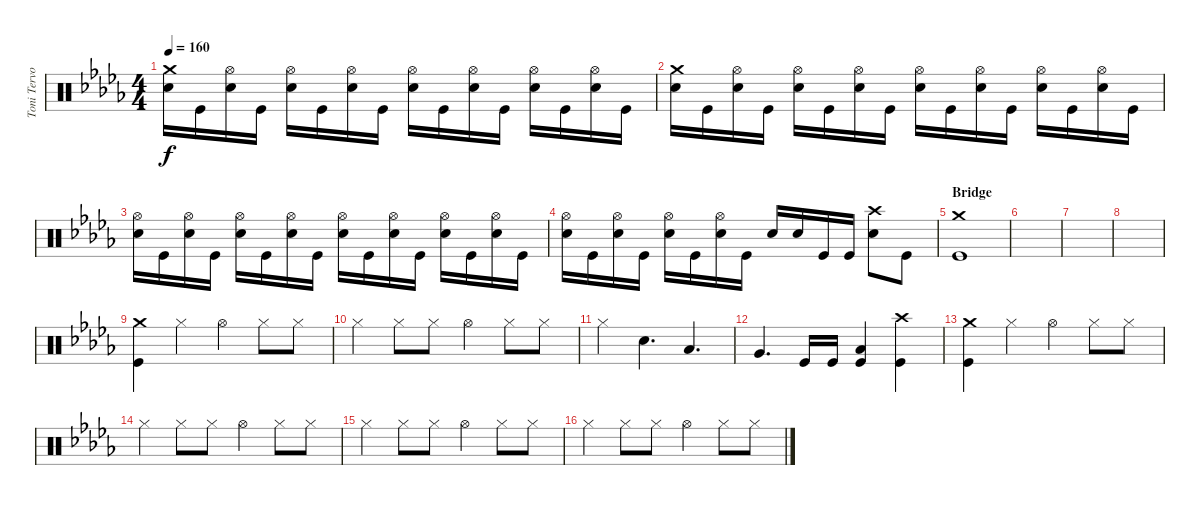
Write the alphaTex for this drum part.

\track ("Toni Tervo (drums)" "Toni Tervo") {instrument percussion}
\staff {score}
\articulation defaults
\ts (4 4)
\tempo 160
\clef neutral
\ks bbminor
("Snare (hit) 2" "Crash medium (hit)").16{dy f} "Kick (hit)".16 ("Snare (hit) 2" "Hi-Hat (open)").16 "Kick (hit)".16 ("Snare (hit) 2" "Hi-Hat (open)").16 "Kick (hit)".16 ("Snare (hit) 2" "Hi-Hat (open)").16 "Kick (hit)".16 ("Snare (hit) 2" "Hi-Hat (open)").16 "Kick (hit)".16 ("Snare (hit) 2" "Hi-Hat (open)").16 "Kick (hit)".16 ("Snare (hit) 2" "Hi-Hat (open)").16 "Kick (hit)".16 ("Snare (hit) 2" "Hi-Hat (open)").16 "Kick (hit)".16 |
("Snare (hit) 2" "Crash medium (hit)").16 "Kick (hit)".16 ("Snare (hit) 2" "Hi-Hat (open)").16 "Kick (hit)".16 ("Snare (hit) 2" "Hi-Hat (open)").16 "Kick (hit)".16 ("Snare (hit) 2" "Hi-Hat (open)").16 "Kick (hit)".16 ("Snare (hit) 2" "Hi-Hat (open)").16 "Kick (hit)".16 ("Snare (hit) 2" "Hi-Hat (open)").16 "Kick (hit)".16 ("Snare (hit) 2" "Hi-Hat (open)").16 "Kick (hit)".16 ("Snare (hit) 2" "Hi-Hat (open)").16 "Kick (hit)".16 |
("Snare (hit) 2" "Hi-Hat (open)").16 "Kick (hit)".16 ("Snare (hit) 2" "Hi-Hat (open)").16 "Kick (hit)".16 ("Snare (hit) 2" "Hi-Hat (open)").16 "Kick (hit)".16 ("Snare (hit) 2" "Hi-Hat (open)").16 "Kick (hit)".16 ("Snare (hit) 2" "Hi-Hat (open)").16 "Kick (hit)".16 ("Snare (hit) 2" "Hi-Hat (open)").16 "Kick (hit)".16 ("Snare (hit) 2" "Hi-Hat (open)").16 "Kick (hit)".16 ("Snare (hit) 2" "Hi-Hat (open)").16 "Kick (hit)".16 |
("Snare (hit) 2" "Hi-Hat (open)").16 "Kick (hit)".16 ("Snare (hit) 2" "Hi-Hat (open)").16 "Kick (hit)".16 ("Snare (hit) 2" "Hi-Hat (open)").16 "Kick (hit)".16 ("Snare (hit) 2" "Hi-Hat (open)").16 "Kick (hit)".16 "Snare (hit) 2".16 "Snare (hit) 2".16 "Kick (hit)".16 "Kick (hit)".16 ("Snare (hit) 2" "Crash high (hit)").8 "Kick (hit)".8 |
\section ("" "Bridge")
("Crash medium (hit)" "Kick (hit)").1 |
|
|
|
("Crash medium (hit)" "Kick (hit)").4 "Hi-Hat (closed)".4 "Hi-Hat (open)".4 "Hi-Hat (closed)".8 "Hi-Hat (closed)".8 |
"Hi-Hat (closed)".4 "Hi-Hat (closed)".8 "Hi-Hat (closed)".8 "Hi-Hat (open)".4 "Hi-Hat (closed)".8 "Hi-Hat (closed)".8 |
"Hi-Hat (closed)".4 "Snare (hit) 2".4{d} "Low Tom (hit)".4{d} |
"Very Low Tom (hit)".4{d} "Kick (hit)".16 "Kick (hit)".16 ("Low Floor Tom (hit)" "Kick (hit)").4 ("Kick (hit)" "Crash high (hit)").4 |
("Crash medium (hit)" "Kick (hit)").4 "Hi-Hat (closed)".4 "Hi-Hat (open)".4 "Hi-Hat (closed)".8 "Hi-Hat (closed)".8 |
"Hi-Hat (closed)".4 "Hi-Hat (closed)".8 "Hi-Hat (closed)".8 "Hi-Hat (open)".4 "Hi-Hat (closed)".8 "Hi-Hat (closed)".8 |
"Hi-Hat (closed)".4 "Hi-Hat (closed)".8 "Hi-Hat (closed)".8 "Hi-Hat (open)".4 "Hi-Hat (closed)".8 "Hi-Hat (closed)".8 |
"Hi-Hat (closed)".4 "Hi-Hat (closed)".8 "Hi-Hat (closed)".8 "Hi-Hat (open)".4 "Hi-Hat (closed)".8 "Hi-Hat (closed)".8
